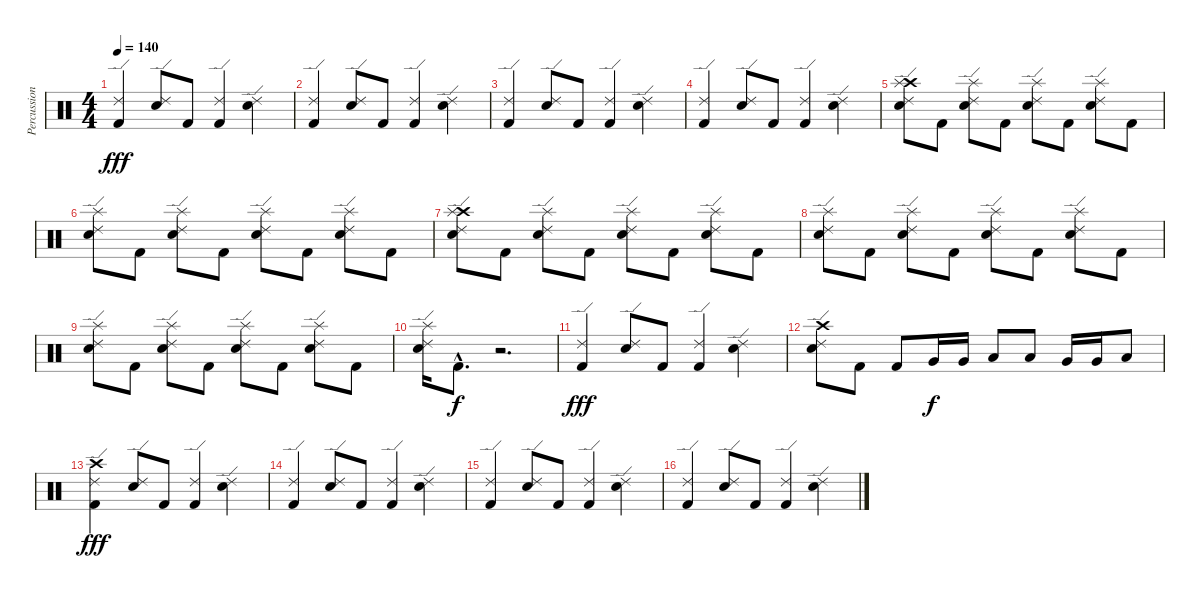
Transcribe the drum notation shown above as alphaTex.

\track ("Percussion" "Percussion") {instrument percussion}
\staff {score}
\articulation defaults
\ts (4 4)
\tempo 140
\clef neutral
\ks c
("Ride (edge) 2" "Kick (hit) 2").4{dy fff} ("Ride (edge) 2" "Electric Snare (hit)").8 "Kick (hit) 2".8 ("Ride (edge) 2" "Kick (hit) 2").4 ("Ride (edge) 2" "Electric Snare (hit)").4 |
("Ride (edge) 2" "Kick (hit) 2").4 ("Ride (edge) 2" "Electric Snare (hit)").8 "Kick (hit) 2".8 ("Ride (edge) 2" "Kick (hit) 2").4 ("Ride (edge) 2" "Electric Snare (hit)").4 |
("Ride (edge) 2" "Kick (hit) 2").4 ("Ride (edge) 2" "Electric Snare (hit)").8 "Kick (hit) 2".8 ("Ride (edge) 2" "Kick (hit) 2").4 ("Ride (edge) 2" "Electric Snare (hit)").4 |
("Ride (edge) 2" "Kick (hit) 2").4 ("Ride (edge) 2" "Electric Snare (hit)").8 "Kick (hit) 2".8 ("Ride (edge) 2" "Kick (hit) 2").4 ("Ride (edge) 2" "Electric Snare (hit)").4 |
("Crash high (hit)" "Ride (edge) 2" "Electric Snare (hit)" "Splash (hit)").8 "Kick (hit) 2".8 ("Ride (edge) 2" "Electric Snare (hit)" "Splash (hit)").8 "Kick (hit) 2".8 ("Ride (edge) 2" "Electric Snare (hit)" "Splash (hit)").8 "Kick (hit) 2".8 ("Ride (edge) 2" "Electric Snare (hit)" "Splash (hit)").8 "Kick (hit) 2".8 |
("Ride (edge) 2" "Electric Snare (hit)" "Splash (hit)").8 "Kick (hit) 2".8 ("Ride (edge) 2" "Electric Snare (hit)" "Splash (hit)").8 "Kick (hit) 2".8 ("Ride (edge) 2" "Electric Snare (hit)" "Splash (hit)").8 "Kick (hit) 2".8 ("Ride (edge) 2" "Electric Snare (hit)" "Splash (hit)").8 "Kick (hit) 2".8 |
("Crash high (hit)" "Ride (edge) 2" "Electric Snare (hit)" "Splash (hit)").8 "Kick (hit) 2".8 ("Ride (edge) 2" "Electric Snare (hit)" "Splash (hit)").8 "Kick (hit) 2".8 ("Ride (edge) 2" "Electric Snare (hit)" "Splash (hit)").8 "Kick (hit) 2".8 ("Ride (edge) 2" "Electric Snare (hit)" "Splash (hit)").8 "Kick (hit) 2".8 |
("Ride (edge) 2" "Electric Snare (hit)" "Splash (hit)").8 "Kick (hit) 2".8 ("Ride (edge) 2" "Electric Snare (hit)" "Splash (hit)").8 "Kick (hit) 2".8 ("Ride (edge) 2" "Electric Snare (hit)" "Splash (hit)").8 "Kick (hit) 2".8 ("Ride (edge) 2" "Electric Snare (hit)" "Splash (hit)").8 "Kick (hit) 2".8 |
("Ride (edge) 2" "Electric Snare (hit)" "Splash (hit)").8 "Kick (hit) 2".8 ("Ride (edge) 2" "Electric Snare (hit)" "Splash (hit)").8 "Kick (hit) 2".8 ("Ride (edge) 2" "Electric Snare (hit)" "Splash (hit)").8 "Kick (hit) 2".8 ("Ride (edge) 2" "Electric Snare (hit)" "Splash (hit)").8 "Kick (hit) 2".8 |
("Ride (edge) 2" "Electric Snare (hit)" "Splash (hit)").16 "Kick (hit) 2"{hac}.8{d dy f} r.2{d} |
("Ride (edge) 2" "Kick (hit) 2").4{dy fff} ("Ride (edge) 2" "Electric Snare (hit)").8 "Kick (hit) 2".8 ("Ride (edge) 2" "Kick (hit) 2").4 ("Ride (edge) 2" "Electric Snare (hit)").4 |
("Crash high (hit)" "Ride (edge) 2" "Electric Snare (hit)").8 "Kick (hit) 2".8 "Kick (hit) 2".8 "Very Low Tom (hit)".16{dy f} "Very Low Tom (hit)".16 "Low Floor Tom (hit)".8 "Low Floor Tom (hit)".8 "Very Low Tom (hit)".16 "Very Low Tom (hit)".16 "Low Floor Tom (hit)".8 |
("Crash high (hit)" "Ride (edge) 2" "Kick (hit) 2").4{dy fff} ("Ride (edge) 2" "Electric Snare (hit)").8 "Kick (hit) 2".8 ("Ride (edge) 2" "Kick (hit) 2").4 ("Ride (edge) 2" "Electric Snare (hit)").4 |
("Ride (edge) 2" "Kick (hit) 2").4 ("Ride (edge) 2" "Electric Snare (hit)").8 "Kick (hit) 2".8 ("Ride (edge) 2" "Kick (hit) 2").4 ("Ride (edge) 2" "Electric Snare (hit)").4 |
("Ride (edge) 2" "Kick (hit) 2").4 ("Ride (edge) 2" "Electric Snare (hit)").8 "Kick (hit) 2".8 ("Ride (edge) 2" "Kick (hit) 2").4 ("Ride (edge) 2" "Electric Snare (hit)").4 |
("Ride (edge) 2" "Kick (hit) 2").4 ("Ride (edge) 2" "Electric Snare (hit)").8 "Kick (hit) 2".8 ("Ride (edge) 2" "Kick (hit) 2").4 ("Ride (edge) 2" "Electric Snare (hit)").4
